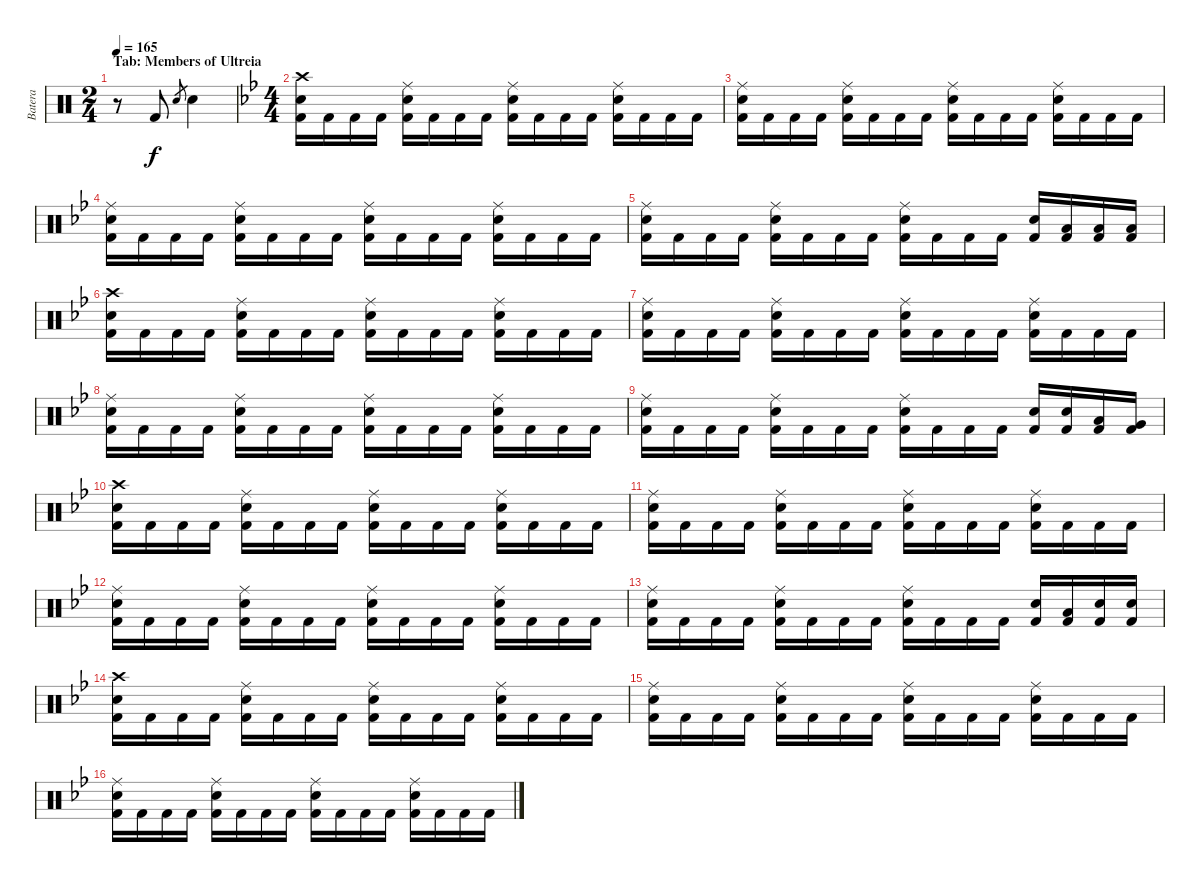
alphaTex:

\track ("Batera" "Batera") {instrument percussion}
\staff {score}
\articulation defaults
\ts (2 4)
\section ("" "Tab: Members of Ultreia")
\tempo 165
\clef neutral
\ks c
r.8{dy f} "Kick (hit) 2".8 "Electric Snare (hit)".8{gr} "Electric Snare (hit)".4 |
\ts (4 4)
\ks bb
("Crash high (hit)" "Electric Snare (hit)" "Kick (hit) 2").16 "Kick (hit) 2".16 "Kick (hit) 2".16 "Kick (hit) 2".16 ("Ride (middle)" "Electric Snare (hit)" "Kick (hit) 2").16 "Kick (hit) 2".16 "Kick (hit) 2".16 "Kick (hit) 2".16 ("Ride (middle)" "Electric Snare (hit)" "Kick (hit) 2").16 "Kick (hit) 2".16 "Kick (hit) 2".16 "Kick (hit) 2".16 ("Ride (middle)" "Electric Snare (hit)" "Kick (hit) 2").16 "Kick (hit) 2".16 "Kick (hit) 2".16 "Kick (hit) 2".16 |
("Ride (middle)" "Electric Snare (hit)" "Kick (hit) 2").16 "Kick (hit) 2".16 "Kick (hit) 2".16 "Kick (hit) 2".16 ("Ride (middle)" "Electric Snare (hit)" "Kick (hit) 2").16 "Kick (hit) 2".16 "Kick (hit) 2".16 "Kick (hit) 2".16 ("Ride (middle)" "Electric Snare (hit)" "Kick (hit) 2").16 "Kick (hit) 2".16 "Kick (hit) 2".16 "Kick (hit) 2".16 ("Ride (middle)" "Electric Snare (hit)" "Kick (hit) 2").16 "Kick (hit) 2".16 "Kick (hit) 2".16 "Kick (hit) 2".16 |
("Ride (middle)" "Electric Snare (hit)" "Kick (hit) 2").16 "Kick (hit) 2".16 "Kick (hit) 2".16 "Kick (hit) 2".16 ("Ride (middle)" "Electric Snare (hit)" "Kick (hit) 2").16 "Kick (hit) 2".16 "Kick (hit) 2".16 "Kick (hit) 2".16 ("Ride (middle)" "Electric Snare (hit)" "Kick (hit) 2").16 "Kick (hit) 2".16 "Kick (hit) 2".16 "Kick (hit) 2".16 ("Ride (middle)" "Electric Snare (hit)" "Kick (hit) 2").16 "Kick (hit) 2".16 "Kick (hit) 2".16 "Kick (hit) 2".16 |
("Ride (middle)" "Electric Snare (hit)" "Kick (hit) 2").16 "Kick (hit) 2".16 "Kick (hit) 2".16 "Kick (hit) 2".16 ("Ride (middle)" "Electric Snare (hit)" "Kick (hit) 2").16 "Kick (hit) 2".16 "Kick (hit) 2".16 "Kick (hit) 2".16 ("Ride (middle)" "Electric Snare (hit)" "Kick (hit) 2").16 "Kick (hit) 2".16 "Kick (hit) 2".16 "Kick (hit) 2".16 ("Electric Snare (hit)" "Kick (hit) 2").16 ("Low Floor Tom (hit)" "Kick (hit) 2").16 ("Low Tom (hit)" "Kick (hit) 2").16 ("Low Floor Tom (hit)" "Kick (hit) 2").16 |
("Crash high (hit)" "Electric Snare (hit)" "Kick (hit) 2").16 "Kick (hit) 2".16 "Kick (hit) 2".16 "Kick (hit) 2".16 ("Ride (middle)" "Electric Snare (hit)" "Kick (hit) 2").16 "Kick (hit) 2".16 "Kick (hit) 2".16 "Kick (hit) 2".16 ("Ride (middle)" "Electric Snare (hit)" "Kick (hit) 2").16 "Kick (hit) 2".16 "Kick (hit) 2".16 "Kick (hit) 2".16 ("Ride (middle)" "Electric Snare (hit)" "Kick (hit) 2").16 "Kick (hit) 2".16 "Kick (hit) 2".16 "Kick (hit) 2".16 |
("Ride (middle)" "Electric Snare (hit)" "Kick (hit) 2").16 "Kick (hit) 2".16 "Kick (hit) 2".16 "Kick (hit) 2".16 ("Ride (middle)" "Electric Snare (hit)" "Kick (hit) 2").16 "Kick (hit) 2".16 "Kick (hit) 2".16 "Kick (hit) 2".16 ("Ride (middle)" "Electric Snare (hit)" "Kick (hit) 2").16 "Kick (hit) 2".16 "Kick (hit) 2".16 "Kick (hit) 2".16 ("Ride (middle)" "Electric Snare (hit)" "Kick (hit) 2").16 "Kick (hit) 2".16 "Kick (hit) 2".16 "Kick (hit) 2".16 |
("Ride (middle)" "Electric Snare (hit)" "Kick (hit) 2").16 "Kick (hit) 2".16 "Kick (hit) 2".16 "Kick (hit) 2".16 ("Ride (middle)" "Electric Snare (hit)" "Kick (hit) 2").16 "Kick (hit) 2".16 "Kick (hit) 2".16 "Kick (hit) 2".16 ("Ride (middle)" "Electric Snare (hit)" "Kick (hit) 2").16 "Kick (hit) 2".16 "Kick (hit) 2".16 "Kick (hit) 2".16 ("Ride (middle)" "Electric Snare (hit)" "Kick (hit) 2").16 "Kick (hit) 2".16 "Kick (hit) 2".16 "Kick (hit) 2".16 |
("Ride (middle)" "Electric Snare (hit)" "Kick (hit) 2").16 "Kick (hit) 2".16 "Kick (hit) 2".16 "Kick (hit) 2".16 ("Ride (middle)" "Electric Snare (hit)" "Kick (hit) 2").16 "Kick (hit) 2".16 "Kick (hit) 2".16 "Kick (hit) 2".16 ("Ride (middle)" "Electric Snare (hit)" "Kick (hit) 2").16 "Kick (hit) 2".16 "Kick (hit) 2".16 "Kick (hit) 2".16 ("Electric Snare (hit)" "Kick (hit) 2").16 ("Electric Snare (hit)" "Kick (hit) 2").16 ("Low Floor Tom (hit)" "Kick (hit) 2").16 ("Very Low Tom (hit)" "Kick (hit) 2").16 |
("Crash high (hit)" "Electric Snare (hit)" "Kick (hit) 2").16 "Kick (hit) 2".16 "Kick (hit) 2".16 "Kick (hit) 2".16 ("Ride (middle)" "Electric Snare (hit)" "Kick (hit) 2").16 "Kick (hit) 2".16 "Kick (hit) 2".16 "Kick (hit) 2".16 ("Ride (middle)" "Electric Snare (hit)" "Kick (hit) 2").16 "Kick (hit) 2".16 "Kick (hit) 2".16 "Kick (hit) 2".16 ("Ride (middle)" "Electric Snare (hit)" "Kick (hit) 2").16 "Kick (hit) 2".16 "Kick (hit) 2".16 "Kick (hit) 2".16 |
("Ride (middle)" "Electric Snare (hit)" "Kick (hit) 2").16 "Kick (hit) 2".16 "Kick (hit) 2".16 "Kick (hit) 2".16 ("Ride (middle)" "Electric Snare (hit)" "Kick (hit) 2").16 "Kick (hit) 2".16 "Kick (hit) 2".16 "Kick (hit) 2".16 ("Ride (middle)" "Electric Snare (hit)" "Kick (hit) 2").16 "Kick (hit) 2".16 "Kick (hit) 2".16 "Kick (hit) 2".16 ("Ride (middle)" "Electric Snare (hit)" "Kick (hit) 2").16 "Kick (hit) 2".16 "Kick (hit) 2".16 "Kick (hit) 2".16 |
("Ride (middle)" "Electric Snare (hit)" "Kick (hit) 2").16 "Kick (hit) 2".16 "Kick (hit) 2".16 "Kick (hit) 2".16 ("Ride (middle)" "Electric Snare (hit)" "Kick (hit) 2").16 "Kick (hit) 2".16 "Kick (hit) 2".16 "Kick (hit) 2".16 ("Ride (middle)" "Electric Snare (hit)" "Kick (hit) 2").16 "Kick (hit) 2".16 "Kick (hit) 2".16 "Kick (hit) 2".16 ("Ride (middle)" "Electric Snare (hit)" "Kick (hit) 2").16 "Kick (hit) 2".16 "Kick (hit) 2".16 "Kick (hit) 2".16 |
("Ride (middle)" "Electric Snare (hit)" "Kick (hit) 2").16 "Kick (hit) 2".16 "Kick (hit) 2".16 "Kick (hit) 2".16 ("Ride (middle)" "Electric Snare (hit)" "Kick (hit) 2").16 "Kick (hit) 2".16 "Kick (hit) 2".16 "Kick (hit) 2".16 ("Ride (middle)" "Electric Snare (hit)" "Kick (hit) 2").16 "Kick (hit) 2".16 "Kick (hit) 2".16 "Kick (hit) 2".16 ("Electric Snare (hit)" "Kick (hit) 2").16 ("Low Floor Tom (hit)" "Kick (hit) 2").16 ("Electric Snare (hit)" "Kick (hit) 2").16 ("Electric Snare (hit)" "Kick (hit) 2").16 |
("Crash high (hit)" "Electric Snare (hit)" "Kick (hit) 2").16 "Kick (hit) 2".16 "Kick (hit) 2".16 "Kick (hit) 2".16 ("Ride (middle)" "Electric Snare (hit)" "Kick (hit) 2").16 "Kick (hit) 2".16 "Kick (hit) 2".16 "Kick (hit) 2".16 ("Ride (middle)" "Electric Snare (hit)" "Kick (hit) 2").16 "Kick (hit) 2".16 "Kick (hit) 2".16 "Kick (hit) 2".16 ("Ride (middle)" "Electric Snare (hit)" "Kick (hit) 2").16 "Kick (hit) 2".16 "Kick (hit) 2".16 "Kick (hit) 2".16 |
("Ride (middle)" "Electric Snare (hit)" "Kick (hit) 2").16 "Kick (hit) 2".16 "Kick (hit) 2".16 "Kick (hit) 2".16 ("Ride (middle)" "Electric Snare (hit)" "Kick (hit) 2").16 "Kick (hit) 2".16 "Kick (hit) 2".16 "Kick (hit) 2".16 ("Ride (middle)" "Electric Snare (hit)" "Kick (hit) 2").16 "Kick (hit) 2".16 "Kick (hit) 2".16 "Kick (hit) 2".16 ("Ride (middle)" "Electric Snare (hit)" "Kick (hit) 2").16 "Kick (hit) 2".16 "Kick (hit) 2".16 "Kick (hit) 2".16 |
("Ride (middle)" "Electric Snare (hit)" "Kick (hit) 2").16 "Kick (hit) 2".16 "Kick (hit) 2".16 "Kick (hit) 2".16 ("Ride (middle)" "Electric Snare (hit)" "Kick (hit) 2").16 "Kick (hit) 2".16 "Kick (hit) 2".16 "Kick (hit) 2".16 ("Ride (middle)" "Electric Snare (hit)" "Kick (hit) 2").16 "Kick (hit) 2".16 "Kick (hit) 2".16 "Kick (hit) 2".16 ("Ride (middle)" "Electric Snare (hit)" "Kick (hit) 2").16 "Kick (hit) 2".16 "Kick (hit) 2".16 "Kick (hit) 2".16
